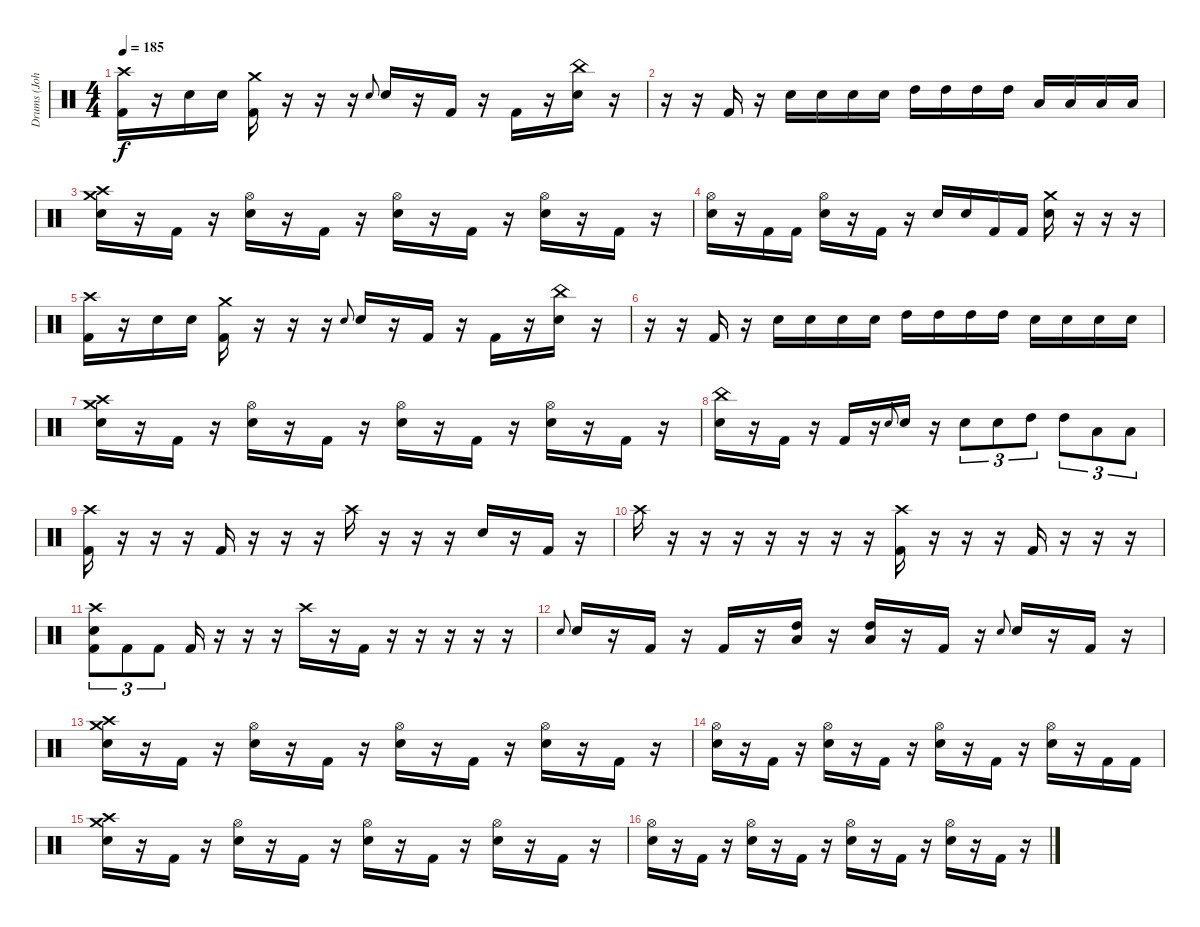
\track ("Drums (Johno)" "Drums (Joh") {instrument percussion}
\staff {score}
\articulation defaults
\ts (4 4)
\tempo 185
\clef neutral
\ks c
("Crash high (hit)" "Kick (hit) 2").16{dy f} r.16 "Electric Snare (hit)".16 "Electric Snare (hit)".16 ("Crash medium (hit)" "Kick (hit) 2").16 r.16 r.16 r.16 "Electric Snare (hit)".8{gr onbeat} "Electric Snare (hit)".16 r.16 "Kick (hit) 2".16 r.16 "Kick (hit) 2".16 r.16 ("China (hit)" "Electric Snare (hit)").16 r.16 |
r.16 r.16 "Kick (hit) 2".16 r.16 "Electric Snare (hit)".16 "Electric Snare (hit)".16 "Electric Snare (hit)".16 "Electric Snare (hit)".16 "High Tom (hit)".16 "High Tom (hit)".16 "High Tom (hit)".16 "High Tom (hit)".16 "Low Floor Tom (hit)".16 "Low Floor Tom (hit)".16 "Low Floor Tom (hit)".16 "Low Floor Tom (hit)".16 |
("Crash medium (hit)" "Crash high (hit)" "Electric Snare (hit)").16 r.16 "Kick (hit) 2".16 r.16 ("Hi-Hat (open)" "Electric Snare (hit)").16 r.16 "Kick (hit) 2".16 r.16 ("Hi-Hat (open)" "Electric Snare (hit)").16 r.16 "Kick (hit) 2".16 r.16 ("Hi-Hat (open)" "Electric Snare (hit)").16 r.16 "Kick (hit) 2".16 r.16 |
("Hi-Hat (open)" "Electric Snare (hit)").16 r.16 "Kick (hit) 2".16 "Kick (hit) 2".16 ("Hi-Hat (open)" "Electric Snare (hit)").16 r.16 "Kick (hit) 2".16 r.16 "Electric Snare (hit)".16 "Electric Snare (hit)".16 "Kick (hit) 2".16 "Kick (hit) 2".16 ("Crash medium (hit)" "Electric Snare (hit)").16 r.16 r.16 r.16 |
("Crash high (hit)" "Kick (hit) 2").16 r.16 "Electric Snare (hit)".16 "Electric Snare (hit)".16 ("Crash medium (hit)" "Kick (hit) 2").16 r.16 r.16 r.16 "Electric Snare (hit)".8{gr onbeat} "Electric Snare (hit)".16 r.16 "Kick (hit) 2".16 r.16 "Kick (hit) 2".16 r.16 ("China (hit)" "Electric Snare (hit)").16 r.16 |
r.16 r.16 "Kick (hit) 2".16 r.16 "Electric Snare (hit)".16 "Electric Snare (hit)".16 "Electric Snare (hit)".16 "Electric Snare (hit)".16 "High Tom (hit)".16 "High Tom (hit)".16 "High Tom (hit)".16 "High Tom (hit)".16 "Electric Snare (hit)".16 "Electric Snare (hit)".16 "Electric Snare (hit)".16 "Electric Snare (hit)".16 |
("Crash medium (hit)" "Crash high (hit)" "Electric Snare (hit)").16 r.16 "Kick (hit) 2".16 r.16 ("Hi-Hat (open)" "Electric Snare (hit)").16 r.16 "Kick (hit) 2".16 r.16 ("Hi-Hat (open)" "Electric Snare (hit)").16 r.16 "Kick (hit) 2".16 r.16 ("Hi-Hat (open)" "Electric Snare (hit)").16 r.16 "Kick (hit) 2".16 r.16 |
("China (hit)" "Electric Snare (hit)").16 r.16 "Kick (hit) 2".16 r.16 "Kick (hit) 2".16 r.16 "Electric Snare (hit)".8{gr onbeat} "Electric Snare (hit)".16 r.16 "Electric Snare (hit)".8{tu (3 2)} "Electric Snare (hit)".8{tu (3 2)} "High Tom (hit)".8{tu (3 2)} "High Tom (hit)".8{tu (3 2)} "Low Floor Tom (hit)".8{tu (3 2)} "Low Floor Tom (hit)".8{tu (3 2)} |
("Crash high (hit)" "Kick (hit) 2").16 r.16 r.16 r.16 "Kick (hit) 2".16 r.16 r.16 r.16 "Crash high (hit)".16 r.16 r.16 r.16 "Electric Snare (hit)".16 r.16 "Kick (hit) 2".16 r.16 |
"Crash high (hit)".16 r.16 r.16 r.16 r.16 r.16 r.16 r.16 ("Crash high (hit)" "Kick (hit) 2").16 r.16 r.16 r.16 "Kick (hit) 2".16 r.16 r.16 r.16 |
("Crash high (hit)" "Electric Snare (hit)" "Kick (hit) 2").8{tu (3 2)} "Kick (hit) 2".8{tu (3 2)} "Kick (hit) 2".8{tu (3 2)} "Kick (hit) 2".16 r.16 r.16 r.16 "Crash high (hit)".16 r.16 "Kick (hit) 2".16 r.16 r.16 r.16 r.16 r.16 |
"Electric Snare (hit)".8{gr onbeat} "Electric Snare (hit)".16 r.16 "Kick (hit) 2".16 r.16 "Kick (hit) 2".16 r.16 ("Low Floor Tom (hit)" "High Tom (hit)").16 r.16 ("Low Floor Tom (hit)" "High Tom (hit)").16 r.16 "Kick (hit) 2".16 r.16 "Electric Snare (hit)".8{gr onbeat} "Electric Snare (hit)".16 r.16 "Kick (hit) 2".16 r.16 |
("Crash medium (hit)" "Crash high (hit)" "Electric Snare (hit)").16 r.16 "Kick (hit) 2".16 r.16 ("Hi-Hat (open)" "Electric Snare (hit)").16 r.16 "Kick (hit) 2".16 r.16 ("Hi-Hat (open)" "Electric Snare (hit)").16 r.16 "Kick (hit) 2".16 r.16 ("Hi-Hat (open)" "Electric Snare (hit)").16 r.16 "Kick (hit) 2".16 r.16 |
("Hi-Hat (open)" "Electric Snare (hit)").16 r.16 "Kick (hit) 2".16 r.16 ("Hi-Hat (open)" "Electric Snare (hit)").16 r.16 "Kick (hit) 2".16 r.16 ("Hi-Hat (open)" "Electric Snare (hit)").16 r.16 "Kick (hit) 2".16 r.16 ("Hi-Hat (open)" "Electric Snare (hit)").16 r.16 "Kick (hit) 2".16 "Kick (hit) 2".16 |
("Crash high (hit)" "Crash medium (hit)" "Electric Snare (hit)").16 r.16 "Kick (hit) 2".16 r.16 ("Hi-Hat (open)" "Electric Snare (hit)").16 r.16 "Kick (hit) 2".16 r.16 ("Hi-Hat (open)" "Electric Snare (hit)").16 r.16 "Kick (hit) 2".16 r.16 ("Hi-Hat (open)" "Electric Snare (hit)").16 r.16 "Kick (hit) 2".16 r.16 |
("Hi-Hat (open)" "Electric Snare (hit)").16 r.16 "Kick (hit) 2".16 r.16 ("Hi-Hat (open)" "Electric Snare (hit)").16 r.16 "Kick (hit) 2".16 r.16 ("Hi-Hat (open)" "Electric Snare (hit)").16 r.16 "Kick (hit) 2".16 r.16 ("Hi-Hat (open)" "Electric Snare (hit)").16 r.16 "Kick (hit) 2".16 r.16
